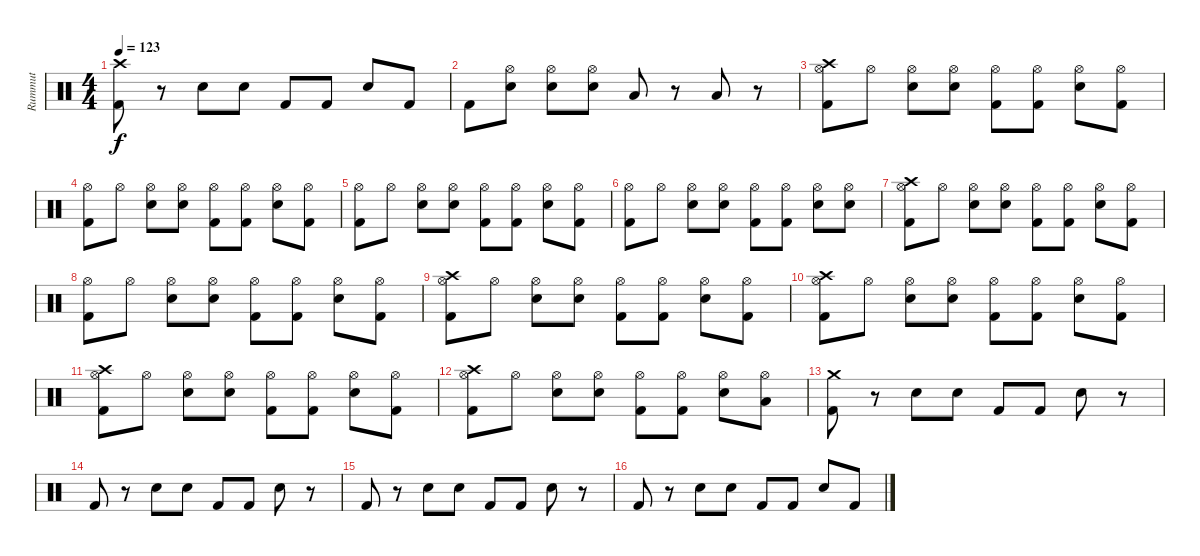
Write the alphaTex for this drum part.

\track ("Rummut" "Rummut") {instrument percussion}
\staff {score}
\articulation defaults
\ts (4 4)
\tempo 123
\clef neutral
\ks c
("Crash high (hit)" "Kick (hit) 2").8{dy f} r.8 "Electric Snare (hit)".8 "Electric Snare (hit)".8 "Kick (hit) 2".8 "Kick (hit) 2".8 "Electric Snare (hit)".8 "Kick (hit) 2".8 |
"Kick (hit) 2".8 ("Hi-Hat (open)" "Electric Snare (hit)").8 ("Hi-Hat (open)" "Electric Snare (hit)").8 ("Hi-Hat (open)" "Electric Snare (hit)").8 "Low Tom (hit)".8 r.8 "Low Tom (hit)".8 r.8 |
("Crash high (hit)" "Hi-Hat (open)" "Kick (hit) 2").8 "Hi-Hat (open)".8 ("Hi-Hat (open)" "Electric Snare (hit)").8 ("Hi-Hat (open)" "Electric Snare (hit)").8 ("Hi-Hat (open)" "Kick (hit) 2").8 ("Hi-Hat (open)" "Kick (hit) 2").8 ("Hi-Hat (open)" "Electric Snare (hit)").8 ("Hi-Hat (open)" "Kick (hit) 2").8 |
("Hi-Hat (open)" "Kick (hit) 2").8 "Hi-Hat (open)".8 ("Hi-Hat (open)" "Electric Snare (hit)").8 ("Hi-Hat (open)" "Electric Snare (hit)").8 ("Hi-Hat (open)" "Kick (hit) 2").8 ("Hi-Hat (open)" "Kick (hit) 2").8 ("Hi-Hat (open)" "Electric Snare (hit)").8 ("Hi-Hat (open)" "Kick (hit) 2").8 |
("Hi-Hat (open)" "Kick (hit) 2").8 "Hi-Hat (open)".8 ("Hi-Hat (open)" "Electric Snare (hit)").8 ("Hi-Hat (open)" "Electric Snare (hit)").8 ("Hi-Hat (open)" "Kick (hit) 2").8 ("Hi-Hat (open)" "Kick (hit) 2").8 ("Hi-Hat (open)" "Electric Snare (hit)").8 ("Hi-Hat (open)" "Kick (hit) 2").8 |
("Hi-Hat (open)" "Kick (hit) 2").8 "Hi-Hat (open)".8 ("Hi-Hat (open)" "Electric Snare (hit)").8 ("Hi-Hat (open)" "Electric Snare (hit)").8 ("Hi-Hat (open)" "Kick (hit) 2").8 ("Hi-Hat (open)" "Kick (hit) 2").8 ("Hi-Hat (open)" "Electric Snare (hit)").8 ("Hi-Hat (open)" "Electric Snare (hit)").8 |
("Crash high (hit)" "Hi-Hat (open)" "Kick (hit) 2").8 "Hi-Hat (open)".8 ("Hi-Hat (open)" "Electric Snare (hit)").8 ("Hi-Hat (open)" "Electric Snare (hit)").8 ("Hi-Hat (open)" "Kick (hit) 2").8 ("Hi-Hat (open)" "Kick (hit) 2").8 ("Hi-Hat (open)" "Electric Snare (hit)").8 ("Hi-Hat (open)" "Kick (hit) 2").8 |
("Hi-Hat (open)" "Kick (hit) 2").8 "Hi-Hat (open)".8 ("Hi-Hat (open)" "Electric Snare (hit)").8 ("Hi-Hat (open)" "Electric Snare (hit)").8 ("Hi-Hat (open)" "Kick (hit) 2").8 ("Hi-Hat (open)" "Kick (hit) 2").8 ("Hi-Hat (open)" "Electric Snare (hit)").8 ("Hi-Hat (open)" "Kick (hit) 2").8 |
("Crash high (hit)" "Hi-Hat (open)" "Kick (hit) 2").8 "Hi-Hat (open)".8 ("Hi-Hat (open)" "Electric Snare (hit)").8 ("Hi-Hat (open)" "Electric Snare (hit)").8 ("Hi-Hat (open)" "Kick (hit) 2").8 ("Hi-Hat (open)" "Kick (hit) 2").8 ("Hi-Hat (open)" "Electric Snare (hit)").8 ("Hi-Hat (open)" "Kick (hit) 2").8 |
("Crash high (hit)" "Hi-Hat (open)" "Kick (hit) 2").8 "Hi-Hat (open)".8 ("Hi-Hat (open)" "Electric Snare (hit)").8 ("Hi-Hat (open)" "Electric Snare (hit)").8 ("Hi-Hat (open)" "Kick (hit) 2").8 ("Hi-Hat (open)" "Kick (hit) 2").8 ("Hi-Hat (open)" "Electric Snare (hit)").8 ("Hi-Hat (open)" "Kick (hit) 2").8 |
("Crash high (hit)" "Hi-Hat (open)" "Kick (hit) 2").8 "Hi-Hat (open)".8 ("Hi-Hat (open)" "Electric Snare (hit)").8 ("Hi-Hat (open)" "Electric Snare (hit)").8 ("Hi-Hat (open)" "Kick (hit) 2").8 ("Hi-Hat (open)" "Kick (hit) 2").8 ("Hi-Hat (open)" "Electric Snare (hit)").8 ("Hi-Hat (open)" "Kick (hit) 2").8 |
("Crash high (hit)" "Hi-Hat (open)" "Kick (hit) 2").8 "Hi-Hat (open)".8 ("Hi-Hat (open)" "Electric Snare (hit)").8 ("Hi-Hat (open)" "Electric Snare (hit)").8 ("Hi-Hat (open)" "Kick (hit) 2").8 ("Hi-Hat (open)" "Kick (hit) 2").8 ("Hi-Hat (open)" "Electric Snare (hit)").8 ("Hi-Hat (open)" "Low Tom (hit)").8 |
("Crash medium (hit)" "Kick (hit) 2").8 r.8 "Electric Snare (hit)".8 "Electric Snare (hit)".8 "Kick (hit) 2".8 "Kick (hit) 2".8 "Electric Snare (hit)".8 r.8 |
"Kick (hit) 2".8 r.8 "Electric Snare (hit)".8 "Electric Snare (hit)".8 "Kick (hit) 2".8 "Kick (hit) 2".8 "Electric Snare (hit)".8 r.8 |
"Kick (hit) 2".8 r.8 "Electric Snare (hit)".8 "Electric Snare (hit)".8 "Kick (hit) 2".8 "Kick (hit) 2".8 "Electric Snare (hit)".8 r.8 |
"Kick (hit) 2".8 r.8 "Electric Snare (hit)".8 "Electric Snare (hit)".8 "Kick (hit) 2".8 "Kick (hit) 2".8 "Electric Snare (hit)".8 "Kick (hit) 2".8
